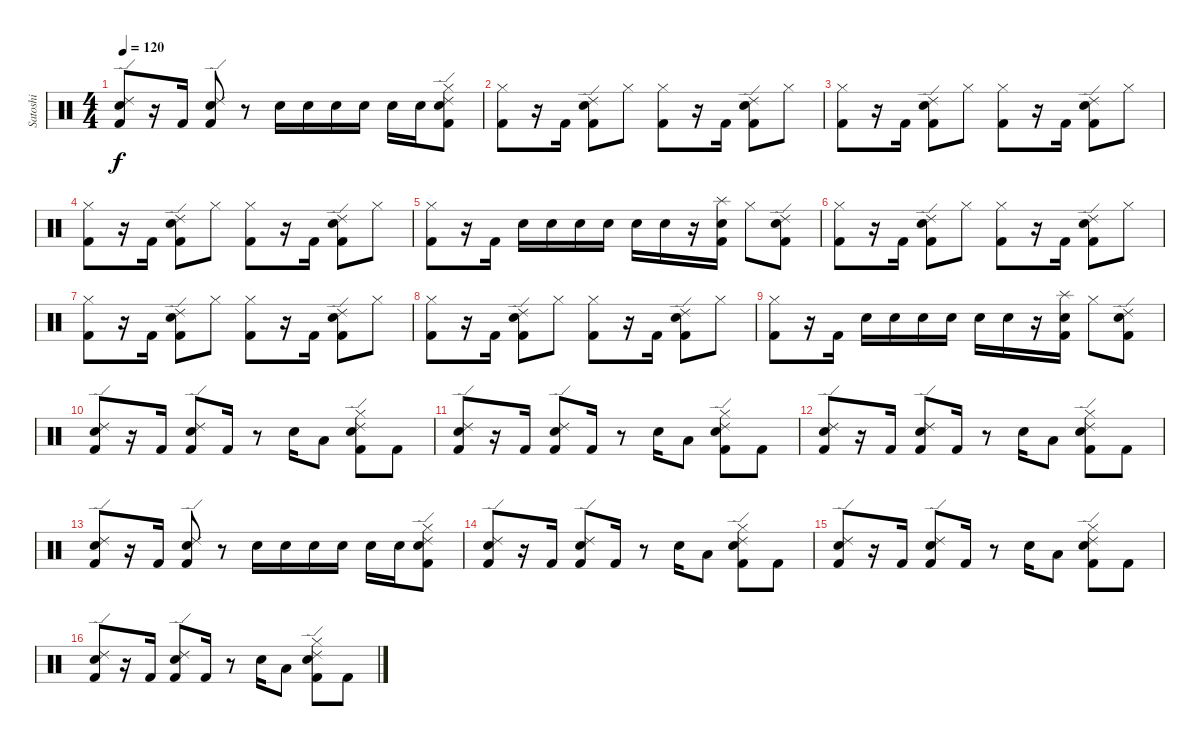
\track ("Satoshi" "Satoshi") {instrument percussion}
\staff {score}
\articulation defaults
\ts (4 4)
\tempo 120
\clef neutral
\ks c
("Ride (edge) 2" "Electric Snare (hit)" "Kick (hit) 2").8{dy f} r.16 "Kick (hit) 2".16 ("Ride (edge) 2" "Electric Snare (hit)" "Kick (hit) 2").8 r.8 "Electric Snare (hit)".16 "Electric Snare (hit)".16 "Electric Snare (hit)".16 "Electric Snare (hit)".16 "Electric Snare (hit)".16 "Electric Snare (hit)".16 ("Ride (edge) 2" "Hi-Hat (closed)" "Electric Snare (hit)" "Kick (hit) 2").8 |
("Hi-Hat (closed)" "Kick (hit) 2").8 r.16 "Kick (hit) 2".16 ("Ride (edge) 2" "Electric Snare (hit)" "Kick (hit) 2").8 "Hi-Hat (closed)".8 ("Hi-Hat (closed)" "Kick (hit) 2").8 r.16 "Kick (hit) 2".16 ("Ride (edge) 2" "Electric Snare (hit)" "Kick (hit) 2").8 "Hi-Hat (closed)".8 |
("Hi-Hat (closed)" "Kick (hit) 2").8 r.16 "Kick (hit) 2".16 ("Ride (edge) 2" "Electric Snare (hit)" "Kick (hit) 2").8 "Hi-Hat (closed)".8 ("Hi-Hat (closed)" "Kick (hit) 2").8 r.16 "Kick (hit) 2".16 ("Ride (edge) 2" "Electric Snare (hit)" "Kick (hit) 2").8 "Hi-Hat (closed)".8 |
("Hi-Hat (closed)" "Kick (hit) 2").8 r.16 "Kick (hit) 2".16 ("Ride (edge) 2" "Electric Snare (hit)" "Kick (hit) 2").8 "Hi-Hat (closed)".8 ("Hi-Hat (closed)" "Kick (hit) 2").8 r.16 "Kick (hit) 2".16 ("Ride (edge) 2" "Electric Snare (hit)" "Kick (hit) 2").8 "Hi-Hat (closed)".8 |
("Hi-Hat (closed)" "Kick (hit) 2").8 r.16 "Kick (hit) 2".16 "Electric Snare (hit)".16 "Electric Snare (hit)".16 "Electric Snare (hit)".16 "Electric Snare (hit)".16 "Electric Snare (hit)".16 "Electric Snare (hit)".16 r.16 ("Splash (hit)" "Electric Snare (hit)" "Kick (hit) 2").16 "Hi-Hat (closed)".8 ("Ride (edge) 2" "Electric Snare (hit)" "Kick (hit) 2").8 |
("Hi-Hat (closed)" "Kick (hit) 2").8 r.16 "Kick (hit) 2".16 ("Ride (edge) 2" "Electric Snare (hit)" "Kick (hit) 2").8 "Hi-Hat (closed)".8 ("Hi-Hat (closed)" "Kick (hit) 2").8 r.16 "Kick (hit) 2".16 ("Ride (edge) 2" "Electric Snare (hit)" "Kick (hit) 2").8 "Hi-Hat (closed)".8 |
("Hi-Hat (closed)" "Kick (hit) 2").8 r.16 "Kick (hit) 2".16 ("Ride (edge) 2" "Electric Snare (hit)" "Kick (hit) 2").8 "Hi-Hat (closed)".8 ("Hi-Hat (closed)" "Kick (hit) 2").8 r.16 "Kick (hit) 2".16 ("Ride (edge) 2" "Electric Snare (hit)" "Kick (hit) 2").8 "Hi-Hat (closed)".8 |
("Hi-Hat (closed)" "Kick (hit) 2").8 r.16 "Kick (hit) 2".16 ("Ride (edge) 2" "Electric Snare (hit)" "Kick (hit) 2").8 "Hi-Hat (closed)".8 ("Hi-Hat (closed)" "Kick (hit) 2").8 r.16 "Kick (hit) 2".16 ("Ride (edge) 2" "Electric Snare (hit)" "Kick (hit) 2").8 "Hi-Hat (closed)".8 |
("Hi-Hat (closed)" "Kick (hit) 2").8 r.16 "Kick (hit) 2".16 "Electric Snare (hit)".16 "Electric Snare (hit)".16 "Electric Snare (hit)".16 "Electric Snare (hit)".16 "Electric Snare (hit)".16 "Electric Snare (hit)".16 r.16 ("Splash (hit)" "Electric Snare (hit)" "Kick (hit) 2").16 "Hi-Hat (closed)".8 ("Ride (edge) 2" "Electric Snare (hit)" "Kick (hit) 2").8 |
("Ride (edge) 2" "Electric Snare (hit)" "Kick (hit) 2").8 r.16 "Kick (hit) 2".16 ("Ride (edge) 2" "Electric Snare (hit)" "Kick (hit) 2").8 "Kick (hit) 2".16 r.8 "Electric Snare (hit)".16 "Low Floor Tom (hit)".8 ("Ride (edge) 2" "Hi-Hat (closed)" "Electric Snare (hit)" "Kick (hit) 2").8 "Kick (hit) 2".8 |
("Ride (edge) 2" "Electric Snare (hit)" "Kick (hit) 2").8 r.16 "Kick (hit) 2".16 ("Ride (edge) 2" "Electric Snare (hit)" "Kick (hit) 2").8 "Kick (hit) 2".16 r.8 "Electric Snare (hit)".16 "Low Floor Tom (hit)".8 ("Ride (edge) 2" "Hi-Hat (closed)" "Electric Snare (hit)" "Kick (hit) 2").8 "Kick (hit) 2".8 |
("Ride (edge) 2" "Electric Snare (hit)" "Kick (hit) 2").8 r.16 "Kick (hit) 2".16 ("Ride (edge) 2" "Electric Snare (hit)" "Kick (hit) 2").8 "Kick (hit) 2".16 r.8 "Electric Snare (hit)".16 "Low Floor Tom (hit)".8 ("Ride (edge) 2" "Hi-Hat (closed)" "Electric Snare (hit)" "Kick (hit) 2").8 "Kick (hit) 2".8 |
("Ride (edge) 2" "Electric Snare (hit)" "Kick (hit) 2").8 r.16 "Kick (hit) 2".16 ("Ride (edge) 2" "Electric Snare (hit)" "Kick (hit) 2").8 r.8 "Electric Snare (hit)".16 "Electric Snare (hit)".16 "Electric Snare (hit)".16 "Electric Snare (hit)".16 "Electric Snare (hit)".16 "Electric Snare (hit)".16 ("Ride (edge) 2" "Hi-Hat (closed)" "Electric Snare (hit)" "Kick (hit) 2").8 |
("Ride (edge) 2" "Electric Snare (hit)" "Kick (hit) 2").8 r.16 "Kick (hit) 2".16 ("Ride (edge) 2" "Electric Snare (hit)" "Kick (hit) 2").8 "Kick (hit) 2".16 r.8 "Electric Snare (hit)".16 "Low Floor Tom (hit)".8 ("Ride (edge) 2" "Hi-Hat (closed)" "Electric Snare (hit)" "Kick (hit) 2").8 "Kick (hit) 2".8 |
("Ride (edge) 2" "Electric Snare (hit)" "Kick (hit) 2").8 r.16 "Kick (hit) 2".16 ("Ride (edge) 2" "Electric Snare (hit)" "Kick (hit) 2").8 "Kick (hit) 2".16 r.8 "Electric Snare (hit)".16 "Low Floor Tom (hit)".8 ("Ride (edge) 2" "Hi-Hat (closed)" "Electric Snare (hit)" "Kick (hit) 2").8 "Kick (hit) 2".8 |
("Ride (edge) 2" "Electric Snare (hit)" "Kick (hit) 2").8 r.16 "Kick (hit) 2".16 ("Ride (edge) 2" "Electric Snare (hit)" "Kick (hit) 2").8 "Kick (hit) 2".16 r.8 "Electric Snare (hit)".16 "Low Floor Tom (hit)".8 ("Ride (edge) 2" "Hi-Hat (closed)" "Electric Snare (hit)" "Kick (hit) 2").8 "Kick (hit) 2".8
